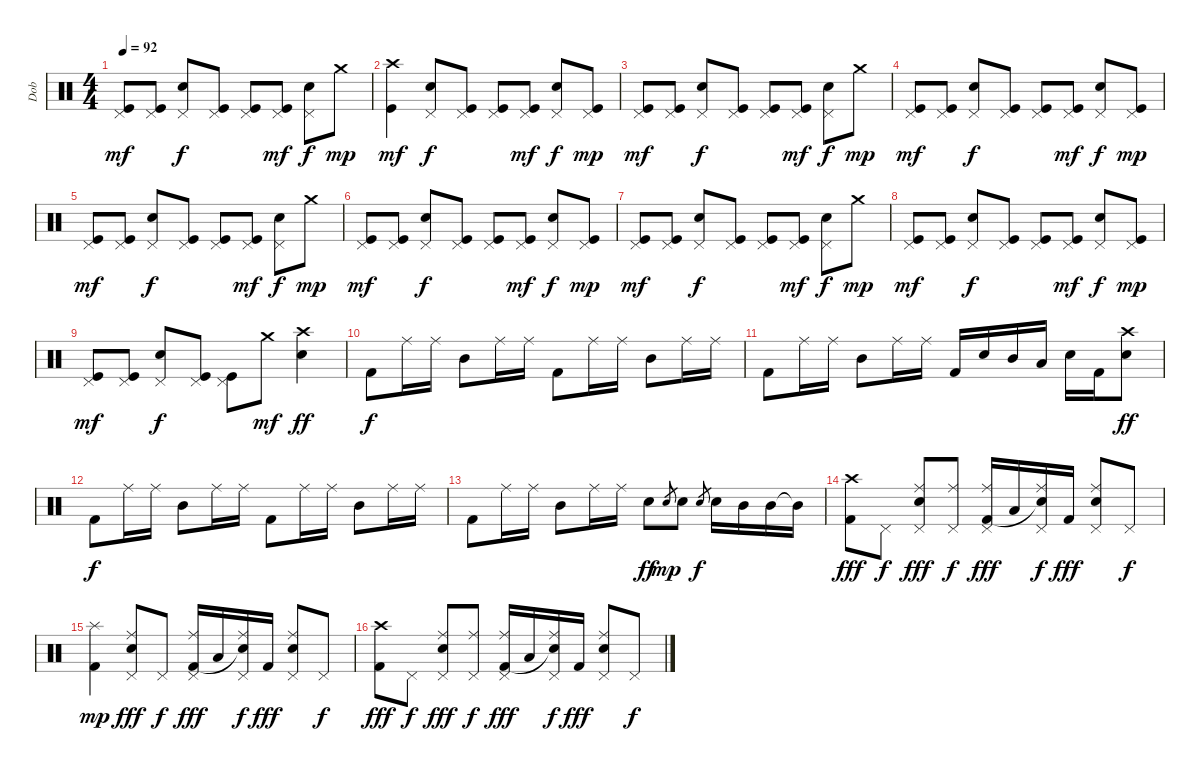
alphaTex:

\track ("Dob" "Dob") {instrument percussion}
\staff {score}
\articulation defaults
\ts (4 4)
\tempo 92
\clef neutral
\ks c
("Kick (hit)" "Pedal Hi-Hat (hit)").8{dy mf} ("Kick (hit)" "Pedal Hi-Hat (hit)").8 ("Electric Snare (hit)" "Pedal Hi-Hat (hit)").8{dy f} ("Kick (hit)" "Pedal Hi-Hat (hit)").8 ("Kick (hit)" "Pedal Hi-Hat (hit)").8 ("Kick (hit)" "Pedal Hi-Hat (hit)").8{dy mf} ("Electric Snare (hit)" "Pedal Hi-Hat (hit)").8{dy f} "Crash medium (hit)".8{dy mp} |
("Kick (hit)" "Crash high (hit)").4{dy mf} ("Electric Snare (hit)" "Pedal Hi-Hat (hit)").8{dy f} ("Kick (hit)" "Pedal Hi-Hat (hit)").8 ("Kick (hit)" "Pedal Hi-Hat (hit)").8 ("Kick (hit)" "Pedal Hi-Hat (hit)").8{dy mf} ("Electric Snare (hit)" "Pedal Hi-Hat (hit)").8{dy f} ("Kick (hit)" "Pedal Hi-Hat (hit)").8{dy mp} |
("Kick (hit)" "Pedal Hi-Hat (hit)").8{dy mf} ("Kick (hit)" "Pedal Hi-Hat (hit)").8 ("Electric Snare (hit)" "Pedal Hi-Hat (hit)").8{dy f} ("Kick (hit)" "Pedal Hi-Hat (hit)").8 ("Kick (hit)" "Pedal Hi-Hat (hit)").8 ("Kick (hit)" "Pedal Hi-Hat (hit)").8{dy mf} ("Electric Snare (hit)" "Pedal Hi-Hat (hit)").8{dy f} "Crash medium (hit)".8{dy mp} |
("Kick (hit)" "Pedal Hi-Hat (hit)").8{dy mf} ("Kick (hit)" "Pedal Hi-Hat (hit)").8 ("Electric Snare (hit)" "Pedal Hi-Hat (hit)").8{dy f} ("Kick (hit)" "Pedal Hi-Hat (hit)").8 ("Kick (hit)" "Pedal Hi-Hat (hit)").8 ("Kick (hit)" "Pedal Hi-Hat (hit)").8{dy mf} ("Electric Snare (hit)" "Pedal Hi-Hat (hit)").8{dy f} ("Kick (hit)" "Pedal Hi-Hat (hit)").8{dy mp} |
("Kick (hit)" "Pedal Hi-Hat (hit)").8{dy mf} ("Kick (hit)" "Pedal Hi-Hat (hit)").8 ("Electric Snare (hit)" "Pedal Hi-Hat (hit)").8{dy f} ("Kick (hit)" "Pedal Hi-Hat (hit)").8 ("Kick (hit)" "Pedal Hi-Hat (hit)").8 ("Kick (hit)" "Pedal Hi-Hat (hit)").8{dy mf} ("Electric Snare (hit)" "Pedal Hi-Hat (hit)").8{dy f} "Crash medium (hit)".8{dy mp} |
("Kick (hit)" "Pedal Hi-Hat (hit)").8{dy mf} ("Kick (hit)" "Pedal Hi-Hat (hit)").8 ("Electric Snare (hit)" "Pedal Hi-Hat (hit)").8{dy f} ("Kick (hit)" "Pedal Hi-Hat (hit)").8 ("Kick (hit)" "Pedal Hi-Hat (hit)").8 ("Kick (hit)" "Pedal Hi-Hat (hit)").8{dy mf} ("Electric Snare (hit)" "Pedal Hi-Hat (hit)").8{dy f} ("Kick (hit)" "Pedal Hi-Hat (hit)").8{dy mp} |
("Kick (hit)" "Pedal Hi-Hat (hit)").8{dy mf} ("Kick (hit)" "Pedal Hi-Hat (hit)").8 ("Electric Snare (hit)" "Pedal Hi-Hat (hit)").8{dy f} ("Kick (hit)" "Pedal Hi-Hat (hit)").8 ("Kick (hit)" "Pedal Hi-Hat (hit)").8 ("Kick (hit)" "Pedal Hi-Hat (hit)").8{dy mf} ("Electric Snare (hit)" "Pedal Hi-Hat (hit)").8{dy f} "Crash medium (hit)".8{dy mp} |
("Kick (hit)" "Pedal Hi-Hat (hit)").8{dy mf} ("Kick (hit)" "Pedal Hi-Hat (hit)").8 ("Electric Snare (hit)" "Pedal Hi-Hat (hit)").8{dy f} ("Kick (hit)" "Pedal Hi-Hat (hit)").8 ("Kick (hit)" "Pedal Hi-Hat (hit)").8 ("Kick (hit)" "Pedal Hi-Hat (hit)").8{dy mf} ("Electric Snare (hit)" "Pedal Hi-Hat (hit)").8{dy f} ("Kick (hit)" "Pedal Hi-Hat (hit)").8{dy mp} |
("Kick (hit)" "Pedal Hi-Hat (hit)").8{dy mf} ("Kick (hit)" "Pedal Hi-Hat (hit)").8 ("Electric Snare (hit)" "Pedal Hi-Hat (hit)").8{dy f} ("Kick (hit)" "Pedal Hi-Hat (hit)").8 ("Kick (hit)" "Pedal Hi-Hat (hit)").8 "Crash medium (hit)".8{dy mf} ("Electric Snare (hit)" "Crash high (hit)").4{dy ff} |
"Kick (hit) 2".8{dy f} "Ride (middle)".16 "Ride (middle)".16 "Mid Tom (hit)".8 "Ride (middle)".16 "Ride (middle)".16 "Kick (hit) 2".8 "Ride (middle)".16 "Ride (middle)".16 "Mid Tom (hit)".8 "Ride (middle)".16 "Ride (middle)".16 |
"Kick (hit) 2".8 "Ride (middle)".16 "Ride (middle)".16 "Mid Tom (hit)".8 "Ride (middle)".16 "Ride (middle)".16 "Kick (hit) 2".16 "Electric Snare (hit)".16 "Mid Tom (hit)".16 "Low Tom (hit)".16 "Electric Snare (hit)".16 "Kick (hit) 2".16 ("Electric Snare (hit)" "Crash high (hit)").8{dy ff} |
"Kick (hit) 2".8{dy f} "Ride (middle)".16 "Ride (middle)".16 "Mid Tom (hit)".8 "Ride (middle)".16 "Ride (middle)".16 "Kick (hit) 2".8 "Ride (middle)".16 "Ride (middle)".16 "Mid Tom (hit)".8 "Ride (middle)".16 "Ride (middle)".16 |
"Kick (hit) 2".8 "Ride (middle)".16 "Ride (middle)".16 "Mid Tom (hit)".8 "Ride (middle)".16 "Ride (middle)".16 "Electric Snare (hit)".8{dy ff} "Electric Snare (hit)".8{gr dy mp} "Electric Snare (hit)".8 "Electric Snare (hit)".8{gr dy f} "Electric Snare (hit)".16 "Mid Tom (hit)".16 "Mid Tom (hit)".16 "Mid Tom (hit)"{t}.16 |
("Kick (hit) 2" "Crash high (hit)").8{dy fff} "Pedal Hi-Hat (hit)".8{dy f} ("Electric Snare (hit)" "Ride (middle)" "Pedal Hi-Hat (hit)").8{dy fff} ("Ride (middle)" "Pedal Hi-Hat (hit)").8{dy f} ("Ride (middle)" "Kick (hit) 2" "Pedal Hi-Hat (hit)").16{dy fff} "Low Tom (hit)".16 ("Ride (middle)" "Snare (hit)"{t} "Pedal Hi-Hat (hit)").16{dy f} "Kick (hit) 2".16{dy fff} ("Electric Snare (hit)" "Ride (middle)" "Pedal Hi-Hat (hit)").8 "Pedal Hi-Hat (hit)".8{dy f} |
("Kick (hit) 2" "Splash (hit)").4{dy mp} ("Electric Snare (hit)" "Ride (middle)" "Pedal Hi-Hat (hit)").8{dy fff} "Pedal Hi-Hat (hit)".8{dy f} ("Ride (middle)" "Kick (hit) 2" "Pedal Hi-Hat (hit)").16{dy fff} "Low Tom (hit)".16 ("Ride (middle)" "Snare (hit)"{t} "Pedal Hi-Hat (hit)").16{dy f} "Kick (hit) 2".16{dy fff} ("Electric Snare (hit)" "Ride (middle)" "Pedal Hi-Hat (hit)").8 "Pedal Hi-Hat (hit)".8{dy f} |
("Kick (hit) 2" "Crash high (hit)").8{dy fff} "Pedal Hi-Hat (hit)".8{dy f} ("Electric Snare (hit)" "Ride (middle)" "Pedal Hi-Hat (hit)").8{dy fff} ("Ride (middle)" "Pedal Hi-Hat (hit)").8{dy f} ("Ride (middle)" "Kick (hit) 2" "Pedal Hi-Hat (hit)").16{dy fff} "Low Tom (hit)".16 ("Ride (middle)" "Snare (hit)"{t} "Pedal Hi-Hat (hit)").16{dy f} "Kick (hit) 2".16{dy fff} ("Electric Snare (hit)" "Ride (middle)" "Pedal Hi-Hat (hit)").8 "Pedal Hi-Hat (hit)".8{dy f}
